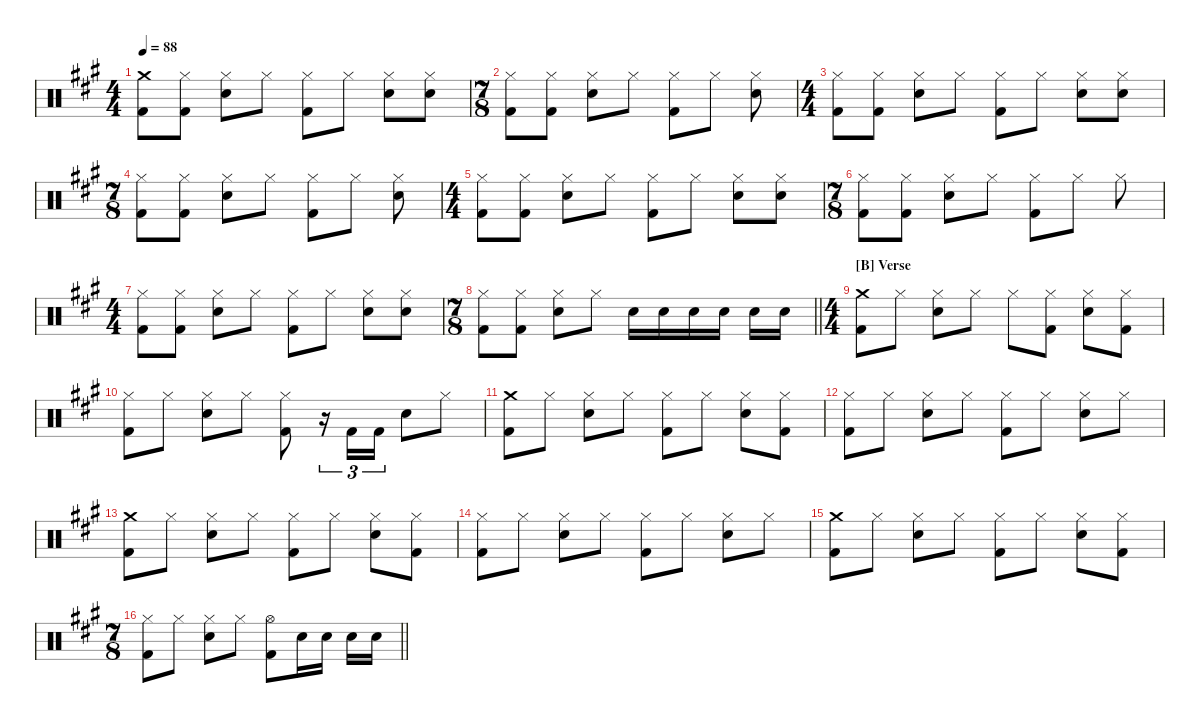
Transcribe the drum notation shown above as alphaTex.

\hideDynamics
\bracketExtendMode nobrackets
\singleTrackTrackNamePolicy hidden
\multiTrackTrackNamePolicy hidden
\firstSystemTrackNameMode fullname
\firstSystemTrackNameOrientation horizontal
\otherSystemsTrackNameOrientation horizontal
\track ("Drumkit" "Drums") {defaultSystemsLayout 4 instrument percussion}
\staff {score}
\articulation defaults
\ts (4 4)
\beaming (8 2 2 2 2)
\scale
0.534196
\tempo 88
\accidentals auto
\clef neutral
\ottava regular
\simile none
\ks a
("Crash medium (hit)"{acc forcenatural} "Kick (hit) 2"{acc forcenatural}).8{dy f beam Down} ("Hi-Hat (closed)"{acc forcenatural} "Kick (hit) 2"{acc forcenatural}).8{beam Down} ("Hi-Hat (closed)"{acc forcenatural} "Snare (hit) 2"{acc forcenatural}).8{beam Down} "Hi-Hat (closed)"{acc forcenatural}.8{beam Down} ("Hi-Hat (closed)"{acc forcenatural} "Kick (hit) 2"{acc forcenatural}).8{beam Down} "Hi-Hat (closed)"{acc forcenatural}.8{beam Down} ("Hi-Hat (closed)"{acc forcenatural} "Snare (hit) 2"{acc forcenatural}).8{beam Down} ("Hi-Hat (closed)"{acc forcenatural} "Snare (hit) 2"{acc forcenatural}).8{beam Down} |
\ts (7 8)
\beaming (8 2 2 2 1)
\scale
0.465804 ("Hi-Hat (closed)"{acc forcenatural} "Kick (hit) 2"{acc forcenatural}).8{beam Down} ("Hi-Hat (closed)"{acc forcenatural} "Kick (hit) 2"{acc forcenatural}).8{beam Down} ("Hi-Hat (closed)"{acc forcenatural} "Snare (hit) 2"{acc forcenatural}).8{beam Down} "Hi-Hat (closed)"{acc forcenatural}.8{beam Down} ("Hi-Hat (closed)"{acc forcenatural} "Kick (hit) 2"{acc forcenatural}).8{beam Down} "Hi-Hat (closed)"{acc forcenatural}.8{beam Down} ("Hi-Hat (closed)"{acc forcenatural} "Snare (hit) 2"{acc forcenatural}).8{beam Down} |
\ts (4 4)
\beaming (8 2 2 2 2)
\scale
0.534196 ("Hi-Hat (closed)"{acc forcenatural} "Kick (hit) 2"{acc forcenatural}).8{beam Down} ("Hi-Hat (closed)"{acc forcenatural} "Kick (hit) 2"{acc forcenatural}).8{beam Down} ("Hi-Hat (closed)"{acc forcenatural} "Snare (hit) 2"{acc forcenatural}).8{beam Down} "Hi-Hat (closed)"{acc forcenatural}.8{beam Down} ("Hi-Hat (closed)"{acc forcenatural} "Kick (hit) 2"{acc forcenatural}).8{beam Down} "Hi-Hat (closed)"{acc forcenatural}.8{beam Down} ("Hi-Hat (closed)"{acc forcenatural} "Snare (hit) 2"{acc forcenatural}).8{beam Down} ("Hi-Hat (closed)"{acc forcenatural} "Snare (hit) 2"{acc forcenatural}).8{beam Down} |
\ts (7 8)
\beaming (8 2 2 2 1)
\scale
0.465804 ("Hi-Hat (closed)"{acc forcenatural} "Kick (hit) 2"{acc forcenatural}).8{beam Down} ("Hi-Hat (closed)"{acc forcenatural} "Kick (hit) 2"{acc forcenatural}).8{beam Down} ("Hi-Hat (closed)"{acc forcenatural} "Snare (hit) 2"{acc forcenatural}).8{beam Down} "Hi-Hat (closed)"{acc forcenatural}.8{beam Down} ("Hi-Hat (closed)"{acc forcenatural} "Kick (hit) 2"{acc forcenatural}).8{beam Down} "Hi-Hat (closed)"{acc forcenatural}.8{beam Down} ("Hi-Hat (closed)"{acc forcenatural} "Snare (hit) 2"{acc forcenatural}).8{beam Down} |
\ts (4 4)
\beaming (8 2 2 2 2)
\scale
0.534196 ("Hi-Hat (closed)"{acc forcenatural} "Kick (hit) 2"{acc forcenatural}).8{beam Down} ("Hi-Hat (closed)"{acc forcenatural} "Kick (hit) 2"{acc forcenatural}).8{beam Down} ("Hi-Hat (closed)"{acc forcenatural} "Snare (hit) 2"{acc forcenatural}).8{beam Down} "Hi-Hat (closed)"{acc forcenatural}.8{beam Down} ("Hi-Hat (closed)"{acc forcenatural} "Kick (hit) 2"{acc forcenatural}).8{beam Down} "Hi-Hat (closed)"{acc forcenatural}.8{beam Down} ("Hi-Hat (closed)"{acc forcenatural} "Snare (hit) 2"{acc forcenatural}).8{beam Down} ("Hi-Hat (closed)"{acc forcenatural} "Snare (hit) 2"{acc forcenatural}).8{beam Down} |
\ts (7 8)
\beaming (8 2 2 2 1)
\scale
0.465804 ("Hi-Hat (closed)"{acc forcenatural} "Kick (hit) 2"{acc forcenatural}).8{beam Down} ("Hi-Hat (closed)"{acc forcenatural} "Kick (hit) 2"{acc forcenatural}).8{beam Down} ("Hi-Hat (closed)"{acc forcenatural} "Snare (hit) 2"{acc forcenatural}).8{beam Down} "Hi-Hat (closed)"{acc forcenatural}.8{beam Down} ("Hi-Hat (closed)"{acc forcenatural} "Kick (hit) 2"{acc forcenatural}).8{beam Down} "Hi-Hat (closed)"{acc forcenatural}.8{beam Down} "Hi-Hat (closed)"{acc forcenatural}.8{beam Down} |
\ts (4 4)
\beaming (8 2 2 2 2)
\scale
0.534196 ("Hi-Hat (closed)"{acc forcenatural} "Kick (hit) 2"{acc forcenatural}).8{beam Down} ("Hi-Hat (closed)"{acc forcenatural} "Kick (hit) 2"{acc forcenatural}).8{beam Down} ("Hi-Hat (closed)"{acc forcenatural} "Snare (hit) 2"{acc forcenatural}).8{beam Down} "Hi-Hat (closed)"{acc forcenatural}.8{beam Down} ("Hi-Hat (closed)"{acc forcenatural} "Kick (hit) 2"{acc forcenatural}).8{beam Down} "Hi-Hat (closed)"{acc forcenatural}.8{beam Down} ("Hi-Hat (closed)"{acc forcenatural} "Snare (hit) 2"{acc forcenatural}).8{beam Down} ("Hi-Hat (closed)"{acc forcenatural} "Snare (hit) 2"{acc forcenatural}).8{beam Down} |
\ts (7 8)
\beaming (8 2 2 2 1)
\scale
0.465804
\barLineRight lightlight
("Hi-Hat (closed)"{acc forcenatural} "Kick (hit) 2"{acc forcenatural}).8{beam Down} ("Hi-Hat (closed)"{acc forcenatural} "Kick (hit) 2"{acc forcenatural}).8{beam Down} ("Hi-Hat (closed)"{acc forcenatural} "Snare (hit) 2"{acc forcenatural}).8{beam Down} "Hi-Hat (closed)"{acc forcenatural}.8{beam Down} "Snare (hit) 2"{acc forcenatural}.16{beam Down} "Snare (hit) 2"{acc forcenatural}.16{beam Down} "Snare (hit) 2"{acc forcenatural}.16{beam Down} "Snare (hit) 2"{acc forcenatural}.16{beam Down} "Snare (hit) 2"{acc forcenatural}.16{beam Down} "Snare (hit) 2"{acc forcenatural}.16{beam Down} |
\ts (4 4)
\beaming (8 2 2 2 2)
\section ("B" "Verse")
\scale
0.516484 ("Crash medium (hit)"{acc forcenatural} "Kick (hit) 2"{acc forcenatural}).8{beam Down} "Hi-Hat (closed)"{acc forcenatural}.8{beam Down} ("Hi-Hat (closed)"{acc forcenatural} "Snare (hit) 2"{acc forcenatural}).8{beam Down} "Hi-Hat (closed)"{acc forcenatural}.8{beam Down} "Hi-Hat (closed)"{acc forcenatural}.8{beam Down} ("Hi-Hat (closed)"{acc forcenatural} "Kick (hit) 2"{acc forcenatural}).8{beam Down} ("Hi-Hat (closed)"{acc forcenatural} "Snare (hit) 2"{acc forcenatural}).8{beam Down} ("Hi-Hat (closed)"{acc forcenatural} "Kick (hit) 2"{acc forcenatural}).8{beam Down} |
\scale
0.483516 ("Hi-Hat (closed)"{acc forcenatural} "Kick (hit) 2"{acc forcenatural}).8{beam Down} "Hi-Hat (closed)"{acc forcenatural}.8{beam Down} ("Hi-Hat (closed)"{acc forcenatural} "Snare (hit) 2"{acc forcenatural}).8{beam Down} "Hi-Hat (closed)"{acc forcenatural}.8{beam Down} ("Hi-Hat (closed)"{acc forcenatural} "Kick (hit) 2"{acc forcenatural}).8{beam Down} r.16{tu (3 2) beam Down} "Kick (hit) 2"{acc forcenatural}.16{tu (3 2) beam Up} "Kick (hit) 2"{acc forcenatural}.16{tu (3 2) beam Up} "Snare (hit) 2"{acc forcenatural}.8{beam Down} "Hi-Hat (closed)"{acc forcenatural}.8{beam Down} |
\scale
0.5 ("Crash medium (hit)"{acc forcenatural} "Kick (hit) 2"{acc forcenatural}).8{beam Down} "Hi-Hat (closed)"{acc forcenatural}.8{beam Down} ("Hi-Hat (closed)"{acc forcenatural} "Snare (hit) 2"{acc forcenatural}).8{beam Down} "Hi-Hat (closed)"{acc forcenatural}.8{beam Down} ("Hi-Hat (closed)"{acc forcenatural} "Kick (hit) 2"{acc forcenatural}).8{beam Down} "Hi-Hat (closed)"{acc forcenatural}.8{beam Down} ("Hi-Hat (closed)"{acc forcenatural} "Snare (hit) 2"{acc forcenatural}).8{beam Down} ("Hi-Hat (closed)"{acc forcenatural} "Kick (hit) 2"{acc forcenatural}).8{beam Down} |
\scale
0.5 ("Hi-Hat (closed)"{acc forcenatural} "Kick (hit) 2"{acc forcenatural}).8{beam Down} "Hi-Hat (closed)"{acc forcenatural}.8{beam Down} ("Hi-Hat (closed)"{acc forcenatural} "Snare (hit) 2"{acc forcenatural}).8{beam Down} "Hi-Hat (closed)"{acc forcenatural}.8{beam Down} ("Hi-Hat (closed)"{acc forcenatural} "Kick (hit) 2"{acc forcenatural}).8{beam Down} "Hi-Hat (closed)"{acc forcenatural}.8{beam Down} ("Hi-Hat (closed)"{acc forcenatural} "Snare (hit) 2"{acc forcenatural}).8{beam Down} "Hi-Hat (closed)"{acc forcenatural}.8{beam Down} |
\scale
0.5 ("Crash medium (hit)"{acc forcenatural} "Kick (hit) 2"{acc forcenatural}).8{beam Down} "Hi-Hat (closed)"{acc forcenatural}.8{beam Down} ("Hi-Hat (closed)"{acc forcenatural} "Snare (hit) 2"{acc forcenatural}).8{beam Down} "Hi-Hat (closed)"{acc forcenatural}.8{beam Down} ("Hi-Hat (closed)"{acc forcenatural} "Kick (hit) 2"{acc forcenatural}).8{beam Down} "Hi-Hat (closed)"{acc forcenatural}.8{beam Down} ("Hi-Hat (closed)"{acc forcenatural} "Snare (hit) 2"{acc forcenatural}).8{beam Down} ("Hi-Hat (closed)"{acc forcenatural} "Kick (hit) 2"{acc forcenatural}).8{beam Down} |
\scale
0.5 ("Hi-Hat (closed)"{acc forcenatural} "Kick (hit) 2"{acc forcenatural}).8{beam Down} "Hi-Hat (closed)"{acc forcenatural}.8{beam Down} ("Hi-Hat (closed)"{acc forcenatural} "Snare (hit) 2"{acc forcenatural}).8{beam Down} "Hi-Hat (closed)"{acc forcenatural}.8{beam Down} ("Hi-Hat (closed)"{acc forcenatural} "Kick (hit) 2"{acc forcenatural}).8{beam Down} "Hi-Hat (closed)"{acc forcenatural}.8{beam Down} ("Hi-Hat (closed)"{acc forcenatural} "Snare (hit) 2"{acc forcenatural}).8{beam Down} "Hi-Hat (closed)"{acc forcenatural}.8{beam Down} |
\scale
0.511628 ("Crash medium (hit)"{acc forcenatural} "Kick (hit) 2"{acc forcenatural}).8{beam Down} "Hi-Hat (closed)"{acc forcenatural}.8{beam Down} ("Hi-Hat (closed)"{acc forcenatural} "Snare (hit) 2"{acc forcenatural}).8{beam Down} "Hi-Hat (closed)"{acc forcenatural}.8{beam Down} ("Hi-Hat (closed)"{acc forcenatural} "Kick (hit) 2"{acc forcenatural}).8{beam Down} "Hi-Hat (closed)"{acc forcenatural}.8{beam Down} ("Hi-Hat (closed)"{acc forcenatural} "Snare (hit) 2"{acc forcenatural}).8{beam Down} ("Hi-Hat (closed)"{acc forcenatural} "Kick (hit) 2"{acc forcenatural}).8{beam Down} |
\ts (7 8)
\beaming (8 2 2 2 1)
\scale
0.488372
\barLineRight lightlight
("Hi-Hat (closed)"{acc forcenatural} "Kick (hit) 2"{acc forcenatural}).8{beam Down} "Hi-Hat (closed)"{acc forcenatural}.8{beam Down} ("Hi-Hat (closed)"{acc forcenatural} "Snare (hit) 2"{acc forcenatural}).8{beam Down} "Hi-Hat (closed)"{acc forcenatural}.8{beam Down} ("Hi-Hat (open)"{acc forcenatural} "Kick (hit) 2"{acc forcenatural}).8{beam Down} "Snare (hit) 2"{acc forcenatural}.16{beam Down} "Snare (hit) 2"{acc forcenatural}.16{beam Down} "Snare (hit) 2"{acc forcenatural}.16{beam Down} "Snare (hit) 2"{acc forcenatural}.16{beam Down}
